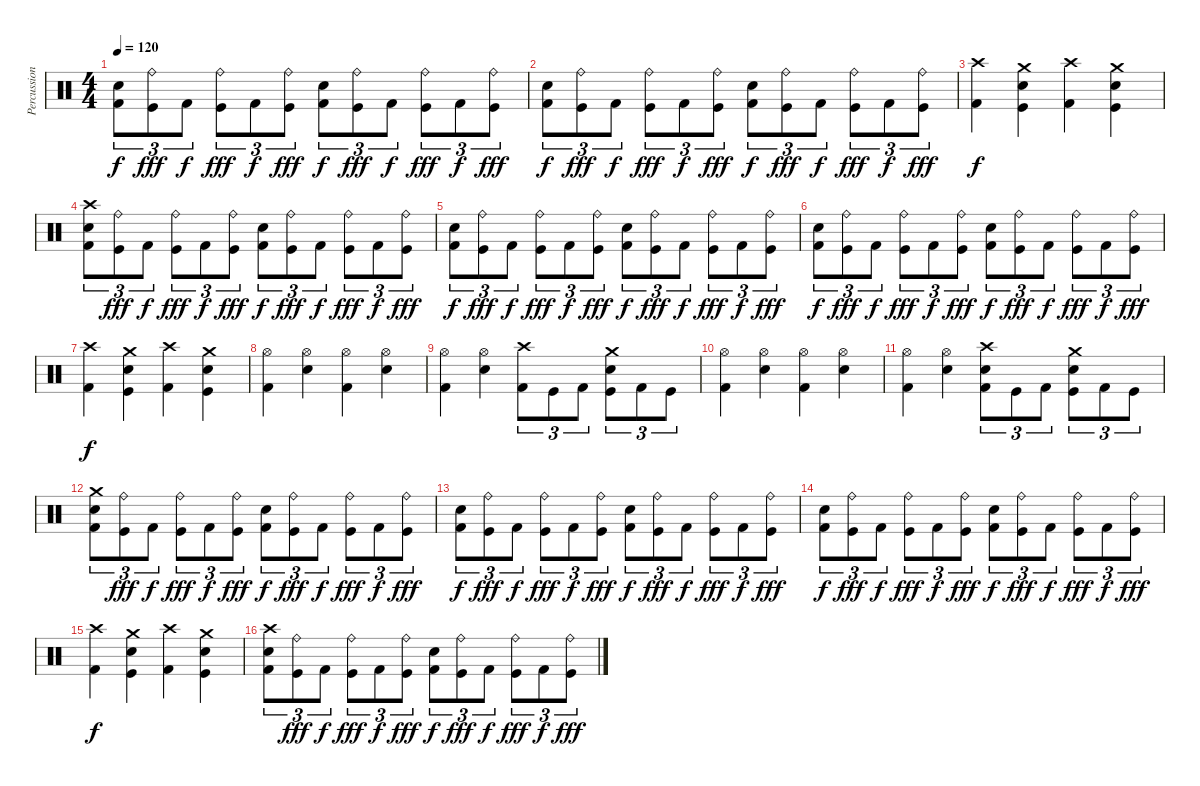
\track ("Percussions" "Percussion") {instrument percussion}
\staff {score}
\articulation defaults
\ts (4 4)
\tempo 120
\clef neutral
\ks c
("Kick (hit) 2" "Electric Snare (hit)").8{tu (3 2) dy f} ("Kick (hit)" "Ride (bell)").8{tu (3 2) dy fff} "Kick (hit) 2".8{tu (3 2) dy f} ("Kick (hit)" "Ride (bell)").8{tu (3 2) dy fff} "Kick (hit) 2".8{tu (3 2) dy f} ("Kick (hit)" "Ride (bell)").8{tu (3 2) dy fff} ("Kick (hit) 2" "Electric Snare (hit)").8{tu (3 2) dy f} ("Kick (hit)" "Ride (bell)").8{tu (3 2) dy fff} "Kick (hit) 2".8{tu (3 2) dy f} ("Kick (hit)" "Ride (bell)").8{tu (3 2) dy fff} "Kick (hit) 2".8{tu (3 2) dy f} ("Kick (hit)" "Ride (bell)").8{tu (3 2) dy fff} |
("Kick (hit) 2" "Electric Snare (hit)").8{tu (3 2) dy f} ("Kick (hit)" "Ride (bell)").8{tu (3 2) dy fff} "Kick (hit) 2".8{tu (3 2) dy f} ("Kick (hit)" "Ride (bell)").8{tu (3 2) dy fff} "Kick (hit) 2".8{tu (3 2) dy f} ("Kick (hit)" "Ride (bell)").8{tu (3 2) dy fff} ("Kick (hit) 2" "Electric Snare (hit)").8{tu (3 2) dy f} ("Kick (hit)" "Ride (bell)").8{tu (3 2) dy fff} "Kick (hit) 2".8{tu (3 2) dy f} ("Kick (hit)" "Ride (bell)").8{tu (3 2) dy fff} "Kick (hit) 2".8{tu (3 2) dy f} ("Kick (hit)" "Ride (bell)").8{tu (3 2) dy fff} |
("Kick (hit) 2" "Crash high (hit)").4{dy f} ("Kick (hit)" "Electric Snare (hit)" "Crash medium (hit)").4 ("Kick (hit) 2" "Crash high (hit)").4 ("Kick (hit)" "Electric Snare (hit)" "Crash medium (hit)").4 |
("Kick (hit) 2" "Electric Snare (hit)" "Crash high (hit)").8{tu (3 2)} ("Kick (hit)" "Ride (bell)").8{tu (3 2) dy fff} "Kick (hit) 2".8{tu (3 2) dy f} ("Kick (hit)" "Ride (bell)").8{tu (3 2) dy fff} "Kick (hit) 2".8{tu (3 2) dy f} ("Kick (hit)" "Ride (bell)").8{tu (3 2) dy fff} ("Kick (hit) 2" "Electric Snare (hit)").8{tu (3 2) dy f} ("Kick (hit)" "Ride (bell)").8{tu (3 2) dy fff} "Kick (hit) 2".8{tu (3 2) dy f} ("Kick (hit)" "Ride (bell)").8{tu (3 2) dy fff} "Kick (hit) 2".8{tu (3 2) dy f} ("Kick (hit)" "Ride (bell)").8{tu (3 2) dy fff} |
("Kick (hit) 2" "Electric Snare (hit)").8{tu (3 2) dy f} ("Kick (hit)" "Ride (bell)").8{tu (3 2) dy fff} "Kick (hit) 2".8{tu (3 2) dy f} ("Kick (hit)" "Ride (bell)").8{tu (3 2) dy fff} "Kick (hit) 2".8{tu (3 2) dy f} ("Kick (hit)" "Ride (bell)").8{tu (3 2) dy fff} ("Kick (hit) 2" "Electric Snare (hit)").8{tu (3 2) dy f} ("Kick (hit)" "Ride (bell)").8{tu (3 2) dy fff} "Kick (hit) 2".8{tu (3 2) dy f} ("Kick (hit)" "Ride (bell)").8{tu (3 2) dy fff} "Kick (hit) 2".8{tu (3 2) dy f} ("Kick (hit)" "Ride (bell)").8{tu (3 2) dy fff} |
("Kick (hit) 2" "Electric Snare (hit)").8{tu (3 2) dy f} ("Kick (hit)" "Ride (bell)").8{tu (3 2) dy fff} "Kick (hit) 2".8{tu (3 2) dy f} ("Kick (hit)" "Ride (bell)").8{tu (3 2) dy fff} "Kick (hit) 2".8{tu (3 2) dy f} ("Kick (hit)" "Ride (bell)").8{tu (3 2) dy fff} ("Kick (hit) 2" "Electric Snare (hit)").8{tu (3 2) dy f} ("Kick (hit)" "Ride (bell)").8{tu (3 2) dy fff} "Kick (hit) 2".8{tu (3 2) dy f} ("Kick (hit)" "Ride (bell)").8{tu (3 2) dy fff} "Kick (hit) 2".8{tu (3 2) dy f} ("Kick (hit)" "Ride (bell)").8{tu (3 2) dy fff} |
("Kick (hit) 2" "Crash high (hit)").4{dy f} ("Kick (hit)" "Electric Snare (hit)" "Crash medium (hit)").4 ("Kick (hit) 2" "Crash high (hit)").4 ("Kick (hit)" "Electric Snare (hit)" "Crash medium (hit)").4 |
("Kick (hit) 2" "Hi-Hat (open)").4 ("Electric Snare (hit)" "Hi-Hat (open)").4 ("Kick (hit) 2" "Hi-Hat (open)").4 ("Electric Snare (hit)" "Hi-Hat (open)").4 |
("Kick (hit) 2" "Hi-Hat (open)").4 ("Electric Snare (hit)" "Hi-Hat (open)").4 ("Kick (hit) 2" "Crash high (hit)").8{tu (3 2)} "Kick (hit)".8{tu (3 2)} "Kick (hit) 2".8{tu (3 2)} ("Kick (hit)" "Electric Snare (hit)" "Crash medium (hit)").8{tu (3 2)} "Kick (hit) 2".8{tu (3 2)} "Kick (hit)".8{tu (3 2)} |
("Kick (hit) 2" "Hi-Hat (open)").4 ("Electric Snare (hit)" "Hi-Hat (open)").4 ("Kick (hit) 2" "Hi-Hat (open)").4 ("Electric Snare (hit)" "Hi-Hat (open)").4 |
("Kick (hit) 2" "Hi-Hat (open)").4 ("Electric Snare (hit)" "Hi-Hat (open)").4 ("Kick (hit) 2" "Electric Snare (hit)" "Crash high (hit)").8{tu (3 2)} "Kick (hit)".8{tu (3 2)} "Kick (hit) 2".8{tu (3 2)} ("Kick (hit)" "Electric Snare (hit)" "Crash medium (hit)").8{tu (3 2)} "Kick (hit) 2".8{tu (3 2)} "Kick (hit)".8{tu (3 2)} |
("Kick (hit) 2" "Electric Snare (hit)" "Crash medium (hit)").8{tu (3 2)} ("Kick (hit)" "Ride (bell)").8{tu (3 2) dy fff} "Kick (hit) 2".8{tu (3 2) dy f} ("Kick (hit)" "Ride (bell)").8{tu (3 2) dy fff} "Kick (hit) 2".8{tu (3 2) dy f} ("Kick (hit)" "Ride (bell)").8{tu (3 2) dy fff} ("Kick (hit) 2" "Electric Snare (hit)").8{tu (3 2) dy f} ("Kick (hit)" "Ride (bell)").8{tu (3 2) dy fff} "Kick (hit) 2".8{tu (3 2) dy f} ("Kick (hit)" "Ride (bell)").8{tu (3 2) dy fff} "Kick (hit) 2".8{tu (3 2) dy f} ("Kick (hit)" "Ride (bell)").8{tu (3 2) dy fff} |
("Kick (hit) 2" "Electric Snare (hit)").8{tu (3 2) dy f} ("Kick (hit)" "Ride (bell)").8{tu (3 2) dy fff} "Kick (hit) 2".8{tu (3 2) dy f} ("Kick (hit)" "Ride (bell)").8{tu (3 2) dy fff} "Kick (hit) 2".8{tu (3 2) dy f} ("Kick (hit)" "Ride (bell)").8{tu (3 2) dy fff} ("Kick (hit) 2" "Electric Snare (hit)").8{tu (3 2) dy f} ("Kick (hit)" "Ride (bell)").8{tu (3 2) dy fff} "Kick (hit) 2".8{tu (3 2) dy f} ("Kick (hit)" "Ride (bell)").8{tu (3 2) dy fff} "Kick (hit) 2".8{tu (3 2) dy f} ("Kick (hit)" "Ride (bell)").8{tu (3 2) dy fff} |
("Kick (hit) 2" "Electric Snare (hit)").8{tu (3 2) dy f} ("Kick (hit)" "Ride (bell)").8{tu (3 2) dy fff} "Kick (hit) 2".8{tu (3 2) dy f} ("Kick (hit)" "Ride (bell)").8{tu (3 2) dy fff} "Kick (hit) 2".8{tu (3 2) dy f} ("Kick (hit)" "Ride (bell)").8{tu (3 2) dy fff} ("Kick (hit) 2" "Electric Snare (hit)").8{tu (3 2) dy f} ("Kick (hit)" "Ride (bell)").8{tu (3 2) dy fff} "Kick (hit) 2".8{tu (3 2) dy f} ("Kick (hit)" "Ride (bell)").8{tu (3 2) dy fff} "Kick (hit) 2".8{tu (3 2) dy f} ("Kick (hit)" "Ride (bell)").8{tu (3 2) dy fff} |
("Kick (hit) 2" "Crash high (hit)").4{dy f} ("Kick (hit)" "Electric Snare (hit)" "Crash medium (hit)").4 ("Kick (hit) 2" "Crash high (hit)").4 ("Kick (hit)" "Electric Snare (hit)" "Crash medium (hit)").4 |
("Kick (hit) 2" "Electric Snare (hit)" "Crash high (hit)").8{tu (3 2)} ("Kick (hit)" "Ride (bell)").8{tu (3 2) dy fff} "Kick (hit) 2".8{tu (3 2) dy f} ("Kick (hit)" "Ride (bell)").8{tu (3 2) dy fff} "Kick (hit) 2".8{tu (3 2) dy f} ("Kick (hit)" "Ride (bell)").8{tu (3 2) dy fff} ("Kick (hit) 2" "Electric Snare (hit)").8{tu (3 2) dy f} ("Kick (hit)" "Ride (bell)").8{tu (3 2) dy fff} "Kick (hit) 2".8{tu (3 2) dy f} ("Kick (hit)" "Ride (bell)").8{tu (3 2) dy fff} "Kick (hit) 2".8{tu (3 2) dy f} ("Kick (hit)" "Ride (bell)").8{tu (3 2) dy fff}
